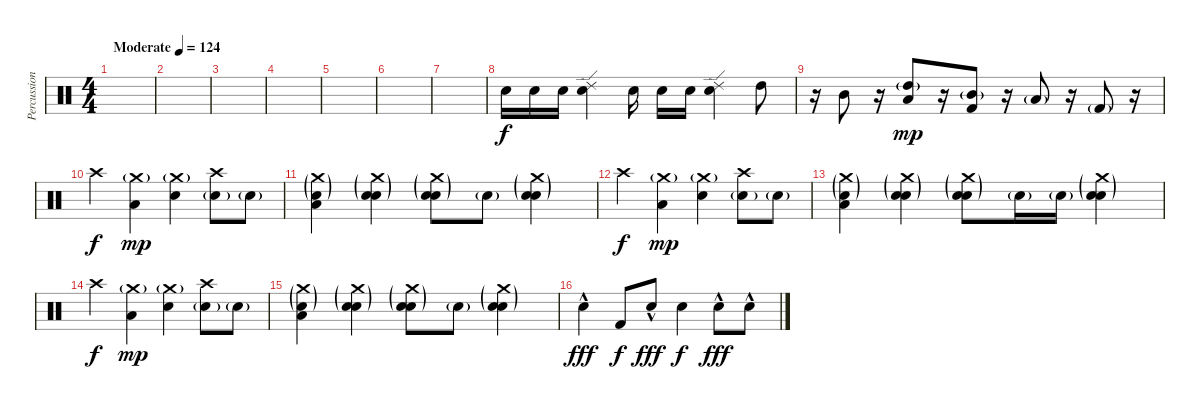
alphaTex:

\track ("Percussions" "Percussion") {instrument percussion}
\staff {score}
\articulation defaults
\ts (4 4)
\tempo (124 "Moderate")
\clef neutral
\ks c
|
|
|
|
|
|
|
"Electric Snare (hit)".16 "Electric Snare (hit)".16 "Electric Snare (hit)".16 ("Ride (edge) 2" "Electric Snare (hit)").4 "Electric Snare (hit)".16 "Electric Snare (hit)".16 "Electric Snare (hit)".16 ("Ride (edge) 2" "Snare (hit) 2").4 "High Tom (hit)".8 |
r.16 "Mid Tom (hit)".8 r.16 ("High Tom (hit)"{g} "Low Tom (hit)").8{dy mp} r.16 ("Mid Tom (hit)"{g} "Kick (hit) 2").8 r.16 "Low Tom (hit)"{g}.8 r.16 "Kick (hit) 2"{g}.8 r.16 |
"Crash high (hit)".4{dy f} ("Crash medium (hit)"{g} "Low Tom (hit)").4{dy mp} ("Crash medium (hit)"{g} "Electric Snare (hit)").4 ("Snare (hit) 2"{g} "Crash high (hit)").8 "Snare (hit) 2"{g}.8 |
("Snare (hit) 2"{g} "Crash medium (hit)"{g} "Low Tom (hit)").4 ("Snare (hit) 2"{g} "Crash medium (hit)"{g} "Electric Snare (hit)").4 ("Snare (hit) 2"{g} "Crash medium (hit)"{g} "Electric Snare (hit)").8 "Snare (hit) 2"{g}.8 ("Snare (hit) 2"{g} "Crash medium (hit)"{g} "Electric Snare (hit)").4 |
"Crash high (hit)".4{dy f} ("Crash medium (hit)"{g} "Low Tom (hit)").4{dy mp} ("Crash medium (hit)"{g} "Electric Snare (hit)").4 ("Snare (hit) 2"{g} "Crash high (hit)").8 "Snare (hit) 2"{g}.8 |
("Snare (hit) 2"{g} "Crash medium (hit)"{g} "Low Tom (hit)").4 ("Snare (hit) 2"{g} "Crash medium (hit)"{g} "Electric Snare (hit)").4 ("Snare (hit) 2"{g} "Crash medium (hit)"{g} "Electric Snare (hit)").8 "Snare (hit) 2"{g}.16 "Snare (hit) 2"{g}.16 ("Snare (hit) 2"{g} "Crash medium (hit)"{g} "Electric Snare (hit)").4 |
"Crash high (hit)".4{dy f} ("Crash medium (hit)"{g} "Low Tom (hit)").4{dy mp} ("Crash medium (hit)"{g} "Electric Snare (hit)").4 ("Snare (hit) 2"{g} "Crash high (hit)").8 "Snare (hit) 2"{g}.8 |
("Snare (hit) 2"{g} "Crash medium (hit)"{g} "Low Tom (hit)").4 ("Snare (hit) 2"{g} "Crash medium (hit)"{g} "Electric Snare (hit)").4 ("Snare (hit) 2"{g} "Crash medium (hit)"{g} "Electric Snare (hit)").8 "Snare (hit) 2"{g}.8 ("Snare (hit) 2"{g} "Crash medium (hit)"{g} "Electric Snare (hit)").4 |
"Electric Snare (hit)"{hac}.4{dy fff} "Kick (hit) 2".8{dy f} "Electric Snare (hit)"{hac}.8{dy fff} "Snare (hit) 2".4{dy f} "Snare (hit) 2"{hac}.8{dy fff} "Electric Snare (hit)"{hac}.8
